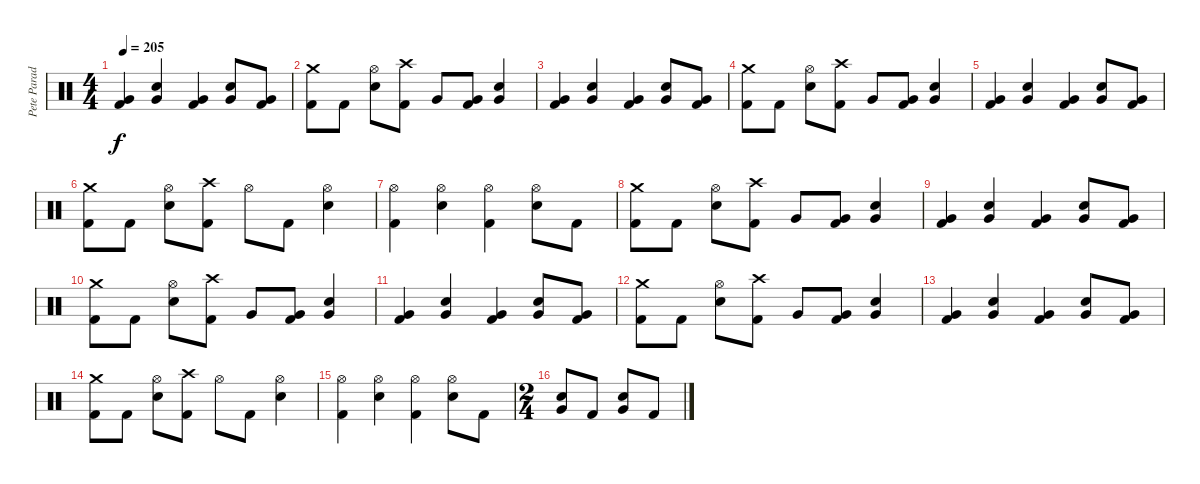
\track ("Pete Parada - Drums" "Pete Parad") {instrument percussion}
\staff {score}
\articulation defaults
\ts (4 4)
\tempo 205
\clef neutral
\ks c
("Very Low Tom (hit)" "Kick (hit) 2").4{dy f} ("Very Low Tom (hit)" "Electric Snare (hit)").4 ("Very Low Tom (hit)" "Kick (hit) 2").4 ("Very Low Tom (hit)" "Electric Snare (hit)").8 ("Very Low Tom (hit)" "Kick (hit) 2").8 |
("Crash medium (hit)" "Kick (hit) 2").8 "Kick (hit) 2".8 ("Hi-Hat (open)" "Electric Snare (hit)").8 ("Crash high (hit)" "Kick (hit) 2").8 "Very Low Tom (hit)".8 ("Very Low Tom (hit)" "Kick (hit) 2").8 ("Very Low Tom (hit)" "Electric Snare (hit)").4 |
("Very Low Tom (hit)" "Kick (hit) 2").4 ("Very Low Tom (hit)" "Electric Snare (hit)").4 ("Very Low Tom (hit)" "Kick (hit) 2").4 ("Very Low Tom (hit)" "Electric Snare (hit)").8 ("Very Low Tom (hit)" "Kick (hit) 2").8 |
("Crash medium (hit)" "Kick (hit) 2").8 "Kick (hit) 2".8 ("Hi-Hat (open)" "Electric Snare (hit)").8 ("Crash high (hit)" "Kick (hit) 2").8 "Very Low Tom (hit)".8 ("Very Low Tom (hit)" "Kick (hit) 2").8 ("Very Low Tom (hit)" "Electric Snare (hit)").4 |
("Very Low Tom (hit)" "Kick (hit) 2").4 ("Very Low Tom (hit)" "Electric Snare (hit)").4 ("Very Low Tom (hit)" "Kick (hit) 2").4 ("Very Low Tom (hit)" "Electric Snare (hit)").8 ("Very Low Tom (hit)" "Kick (hit) 2").8 |
("Crash medium (hit)" "Kick (hit) 2").8 "Kick (hit) 2".8 ("Hi-Hat (open)" "Electric Snare (hit)").8 ("Crash high (hit)" "Kick (hit) 2").8 "Hi-Hat (open)".8 "Kick (hit) 2".8 ("Hi-Hat (open)" "Electric Snare (hit)").4 |
("Hi-Hat (open)" "Kick (hit) 2").4 ("Hi-Hat (open)" "Electric Snare (hit)").4 ("Hi-Hat (open)" "Kick (hit) 2").4 ("Hi-Hat (open)" "Electric Snare (hit)").8 "Kick (hit) 2".8 |
("Crash medium (hit)" "Kick (hit) 2").8 "Kick (hit) 2".8 ("Hi-Hat (open)" "Electric Snare (hit)").8 ("Crash high (hit)" "Kick (hit) 2").8 "Very Low Tom (hit)".8 ("Very Low Tom (hit)" "Kick (hit) 2").8 ("Very Low Tom (hit)" "Electric Snare (hit)").4 |
("Very Low Tom (hit)" "Kick (hit) 2").4 ("Very Low Tom (hit)" "Electric Snare (hit)").4 ("Very Low Tom (hit)" "Kick (hit) 2").4 ("Very Low Tom (hit)" "Electric Snare (hit)").8 ("Very Low Tom (hit)" "Kick (hit) 2").8 |
("Crash medium (hit)" "Kick (hit) 2").8 "Kick (hit) 2".8 ("Hi-Hat (open)" "Electric Snare (hit)").8 ("Crash high (hit)" "Kick (hit) 2").8 "Very Low Tom (hit)".8 ("Very Low Tom (hit)" "Kick (hit) 2").8 ("Very Low Tom (hit)" "Electric Snare (hit)").4 |
("Very Low Tom (hit)" "Kick (hit) 2").4 ("Very Low Tom (hit)" "Electric Snare (hit)").4 ("Very Low Tom (hit)" "Kick (hit) 2").4 ("Very Low Tom (hit)" "Electric Snare (hit)").8 ("Very Low Tom (hit)" "Kick (hit) 2").8 |
("Crash medium (hit)" "Kick (hit) 2").8 "Kick (hit) 2".8 ("Hi-Hat (open)" "Electric Snare (hit)").8 ("Crash high (hit)" "Kick (hit) 2").8 "Very Low Tom (hit)".8 ("Very Low Tom (hit)" "Kick (hit) 2").8 ("Very Low Tom (hit)" "Electric Snare (hit)").4 |
("Very Low Tom (hit)" "Kick (hit) 2").4 ("Very Low Tom (hit)" "Electric Snare (hit)").4 ("Very Low Tom (hit)" "Kick (hit) 2").4 ("Very Low Tom (hit)" "Electric Snare (hit)").8 ("Very Low Tom (hit)" "Kick (hit) 2").8 |
("Crash medium (hit)" "Kick (hit) 2").8 "Kick (hit) 2".8 ("Hi-Hat (open)" "Electric Snare (hit)").8 ("Crash high (hit)" "Kick (hit) 2").8 "Hi-Hat (open)".8 "Kick (hit) 2".8 ("Hi-Hat (open)" "Electric Snare (hit)").4 |
("Hi-Hat (open)" "Kick (hit) 2").4 ("Hi-Hat (open)" "Electric Snare (hit)").4 ("Hi-Hat (open)" "Kick (hit) 2").4 ("Hi-Hat (open)" "Electric Snare (hit)").8 "Kick (hit) 2".8 |
\ts (2 4)
("Very Low Tom (hit)" "Electric Snare (hit)").8 "Kick (hit) 2".8 ("Very Low Tom (hit)" "Electric Snare (hit)").8 "Kick (hit) 2".8
